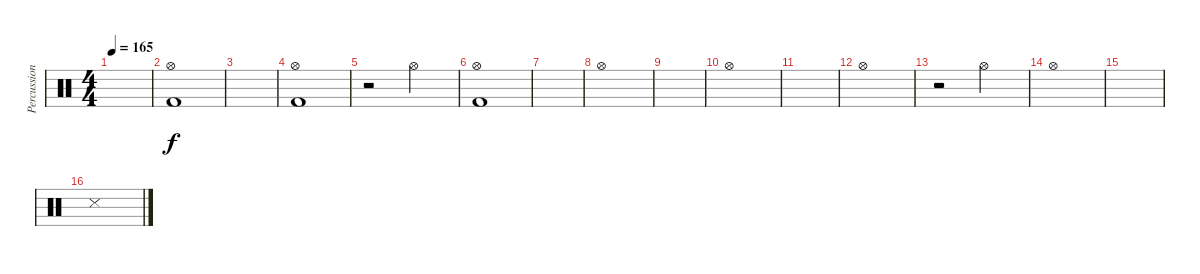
\track ("Percussion" "Percussion") {instrument percussion}
\staff {score}
\articulation defaults
\ts (4 4)
\tempo 165
\clef neutral
\ks c
|
("Hi-Hat (open)" "Kick (hit) 2").1 |
|
("Hi-Hat (open)" "Kick (hit) 2").1 |
r.2 "Hi-Hat (open)".2 |
("Hi-Hat (open)" "Kick (hit) 2").1 |
|
"Hi-Hat (open)".1 |
|
"Hi-Hat (open)".1 |
|
"Hi-Hat (open)".1 |
r.2 "Hi-Hat (open)".2 |
"Hi-Hat (open)".1 |
|
"Snare (side stick) 3".1
